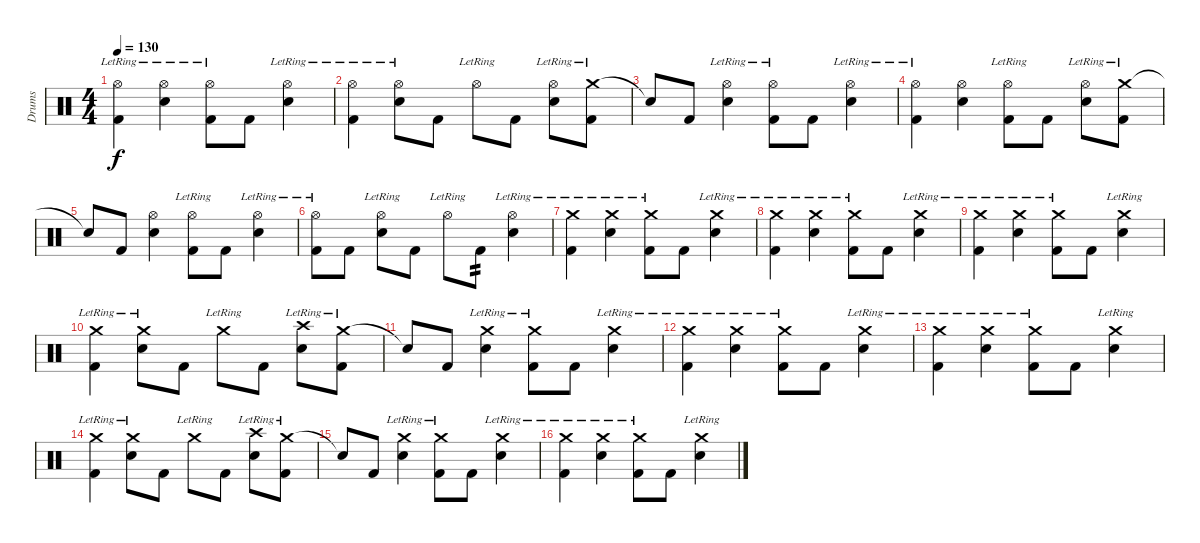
\track ("Drums" "Drums") {instrument percussion}
\staff {score}
\articulation defaults
\ts (4 4)
\tempo 130
\clef neutral
\ks c
("Hi-Hat (open)"{lr} "Kick (hit) 2").4{dy f} ("Hi-Hat (open)"{lr} "Electric Snare (hit)").4 ("Hi-Hat (open)"{lr} "Kick (hit) 2").8 "Kick (hit) 2".8 ("Hi-Hat (open)"{lr} "Electric Snare (hit)").4 |
("Hi-Hat (open)"{lr} "Kick (hit) 2").4 ("Hi-Hat (open)"{lr} "Electric Snare (hit)").8 "Kick (hit) 2".8 "Hi-Hat (open)"{lr}.8 "Kick (hit) 2".8 ("Hi-Hat (open)"{lr} "Electric Snare (hit)").8 ("Crash medium (hit)"{lr} "Kick (hit) 2").8 |
"Snare (hit)"{t}.8 "Kick (hit) 2".8 ("Hi-Hat (open)"{lr} "Electric Snare (hit)").4 ("Hi-Hat (open)"{lr} "Kick (hit) 2").8 "Kick (hit) 2".8 ("Hi-Hat (open)"{lr} "Electric Snare (hit)").4 |
("Hi-Hat (open)"{lr} "Kick (hit) 2").4 ("Hi-Hat (open)" "Electric Snare (hit)").4 ("Hi-Hat (open)"{lr} "Kick (hit) 2").8 "Kick (hit) 2".8 ("Hi-Hat (open)"{lr} "Electric Snare (hit)").8 ("Crash medium (hit)"{lr} "Kick (hit) 2").8 |
"Snare (hit)"{t}.8 "Kick (hit) 2".8 ("Hi-Hat (open)" "Electric Snare (hit)").4 ("Hi-Hat (open)"{lr} "Kick (hit) 2").8 "Kick (hit) 2".8 ("Hi-Hat (open)"{lr} "Electric Snare (hit)").4 |
("Hi-Hat (open)"{lr} "Kick (hit) 2").8 "Kick (hit) 2".8 ("Hi-Hat (open)"{lr} "Electric Snare (hit)").8 "Kick (hit) 2".8 "Hi-Hat (open)"{lr}.8 "Kick (hit) 2".8{tp 2} ("Hi-Hat (open)"{lr} "Electric Snare (hit)").4 |
("Crash medium (hit)"{lr} "Kick (hit) 2").4 ("Crash medium (hit)"{lr} "Electric Snare (hit)").4 ("Crash medium (hit)"{lr} "Kick (hit) 2").8 "Kick (hit) 2".8 ("Crash medium (hit)"{lr} "Electric Snare (hit)").4 |
("Crash medium (hit)"{lr} "Kick (hit) 2").4 ("Crash medium (hit)"{lr} "Electric Snare (hit)").4 ("Crash medium (hit)"{lr} "Kick (hit) 2").8 "Kick (hit) 2".8 ("Crash medium (hit)"{lr} "Electric Snare (hit)").4 |
("Crash medium (hit)"{lr} "Kick (hit) 2").4 ("Crash medium (hit)"{lr} "Electric Snare (hit)").4 ("Crash medium (hit)"{lr} "Kick (hit) 2").8 "Kick (hit) 2".8 ("Crash medium (hit)"{lr} "Electric Snare (hit)").4 |
("Crash medium (hit)"{lr} "Kick (hit) 2").4 ("Crash medium (hit)"{lr} "Electric Snare (hit)").8 "Kick (hit) 2".8 "Crash medium (hit)"{lr}.8 "Kick (hit) 2".8 ("Crash high (hit)"{lr} "Electric Snare (hit)").8 ("Crash medium (hit)"{lr} "Kick (hit) 2").8 |
"Snare (hit)"{t}.8 "Kick (hit) 2".8 ("Crash medium (hit)"{lr} "Electric Snare (hit)").4 ("Crash medium (hit)"{lr} "Kick (hit) 2").8 "Kick (hit) 2".8 ("Crash medium (hit)"{lr} "Electric Snare (hit)").4 |
("Crash medium (hit)"{lr} "Kick (hit) 2").4 ("Crash medium (hit)"{lr} "Electric Snare (hit)").4 ("Crash medium (hit)"{lr} "Kick (hit) 2").8 "Kick (hit) 2".8 ("Crash medium (hit)"{lr} "Electric Snare (hit)").4 |
("Crash medium (hit)"{lr} "Kick (hit) 2").4 ("Crash medium (hit)"{lr} "Electric Snare (hit)").4 ("Crash medium (hit)"{lr} "Kick (hit) 2").8 "Kick (hit) 2".8 ("Crash medium (hit)"{lr} "Electric Snare (hit)").4 |
("Crash medium (hit)"{lr} "Kick (hit) 2").4 ("Crash medium (hit)"{lr} "Electric Snare (hit)").8 "Kick (hit) 2".8 "Crash medium (hit)"{lr}.8 "Kick (hit) 2".8 ("Crash high (hit)"{lr} "Electric Snare (hit)").8 ("Crash medium (hit)"{lr} "Kick (hit) 2").8 |
"Snare (hit)"{t}.8 "Kick (hit) 2".8 ("Crash medium (hit)"{lr} "Electric Snare (hit)").4 ("Crash medium (hit)"{lr} "Kick (hit) 2").8 "Kick (hit) 2".8 ("Crash medium (hit)"{lr} "Electric Snare (hit)").4 |
("Crash medium (hit)"{lr} "Kick (hit) 2").4 ("Crash medium (hit)"{lr} "Electric Snare (hit)").4 ("Crash medium (hit)"{lr} "Kick (hit) 2").8 "Kick (hit) 2".8 ("Crash medium (hit)"{lr} "Electric Snare (hit)").4
